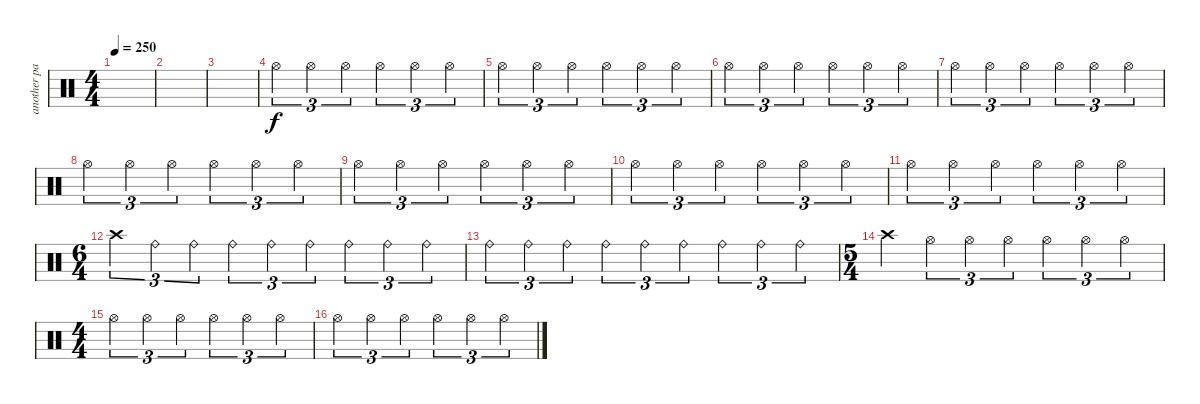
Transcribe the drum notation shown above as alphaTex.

\track ("another part of metti" "another pa") {instrument percussion}
\staff {score}
\articulation defaults
\ts (4 4)
\tempo 250
\clef neutral
\ks c
|
|
|
"Hi-Hat (open)".4{tu (3 2)} "Hi-Hat (open)".4{tu (3 2)} "Hi-Hat (open)".4{tu (3 2)} "Hi-Hat (open)".4{tu (3 2)} "Hi-Hat (open)".4{tu (3 2)} "Hi-Hat (open)".4{tu (3 2)} |
"Hi-Hat (open)".4{tu (3 2)} "Hi-Hat (open)".4{tu (3 2)} "Hi-Hat (open)".4{tu (3 2)} "Hi-Hat (open)".4{tu (3 2)} "Hi-Hat (open)".4{tu (3 2)} "Hi-Hat (open)".4{tu (3 2)} |
"Hi-Hat (open)".4{tu (3 2)} "Hi-Hat (open)".4{tu (3 2)} "Hi-Hat (open)".4{tu (3 2)} "Hi-Hat (open)".4{tu (3 2)} "Hi-Hat (open)".4{tu (3 2)} "Hi-Hat (open)".4{tu (3 2)} |
"Hi-Hat (open)".4{tu (3 2)} "Hi-Hat (open)".4{tu (3 2)} "Hi-Hat (open)".4{tu (3 2)} "Hi-Hat (open)".4{tu (3 2)} "Hi-Hat (open)".4{tu (3 2)} "Hi-Hat (open)".4{tu (3 2)} |
"Hi-Hat (open)".4{tu (3 2)} "Hi-Hat (open)".4{tu (3 2)} "Hi-Hat (open)".4{tu (3 2)} "Hi-Hat (open)".4{tu (3 2)} "Hi-Hat (open)".4{tu (3 2)} "Hi-Hat (open)".4{tu (3 2)} |
"Hi-Hat (open)".4{tu (3 2)} "Hi-Hat (open)".4{tu (3 2)} "Hi-Hat (open)".4{tu (3 2)} "Hi-Hat (open)".4{tu (3 2)} "Hi-Hat (open)".4{tu (3 2)} "Hi-Hat (open)".4{tu (3 2)} |
"Hi-Hat (open)".4{tu (3 2)} "Hi-Hat (open)".4{tu (3 2)} "Hi-Hat (open)".4{tu (3 2)} "Hi-Hat (open)".4{tu (3 2)} "Hi-Hat (open)".4{tu (3 2)} "Hi-Hat (open)".4{tu (3 2)} |
"Hi-Hat (open)".4{tu (3 2)} "Hi-Hat (open)".4{tu (3 2)} "Hi-Hat (open)".4{tu (3 2)} "Hi-Hat (open)".4{tu (3 2)} "Hi-Hat (open)".4{tu (3 2)} "Hi-Hat (open)".4{tu (3 2)} |
\ts (6 4)
"Crash high (hit)".4{tu (3 2)} "Ride (bell)".4{tu (3 2)} "Ride (bell)".4{tu (3 2)} "Ride (bell)".4{tu (3 2)} "Ride (bell)".4{tu (3 2)} "Ride (bell)".4{tu (3 2)} "Ride (bell)".4{tu (3 2)} "Ride (bell)".4{tu (3 2)} "Ride (bell)".4{tu (3 2)} |
"Ride (bell)".4{tu (3 2)} "Ride (bell)".4{tu (3 2)} "Ride (bell)".4{tu (3 2)} "Ride (bell)".4{tu (3 2)} "Ride (bell)".4{tu (3 2)} "Ride (bell)".4{tu (3 2)} "Ride (bell)".4{tu (3 2)} "Ride (bell)".4{tu (3 2)} "Ride (bell)".4{tu (3 2)} |
\ts (5 4)
"Crash high (hit)".4 "Hi-Hat (open)".4{tu (3 2)} "Hi-Hat (open)".4{tu (3 2)} "Hi-Hat (open)".4{tu (3 2)} "Hi-Hat (open)".4{tu (3 2)} "Hi-Hat (open)".4{tu (3 2)} "Hi-Hat (open)".4{tu (3 2)} |
\ts (4 4)
"Hi-Hat (open)".4{tu (3 2)} "Hi-Hat (open)".4{tu (3 2)} "Hi-Hat (open)".4{tu (3 2)} "Hi-Hat (open)".4{tu (3 2)} "Hi-Hat (open)".4{tu (3 2)} "Hi-Hat (open)".4{tu (3 2)} |
"Hi-Hat (open)".4{tu (3 2)} "Hi-Hat (open)".4{tu (3 2)} "Hi-Hat (open)".4{tu (3 2)} "Hi-Hat (open)".4{tu (3 2)} "Hi-Hat (open)".4{tu (3 2)} "Hi-Hat (open)".4{tu (3 2)}
